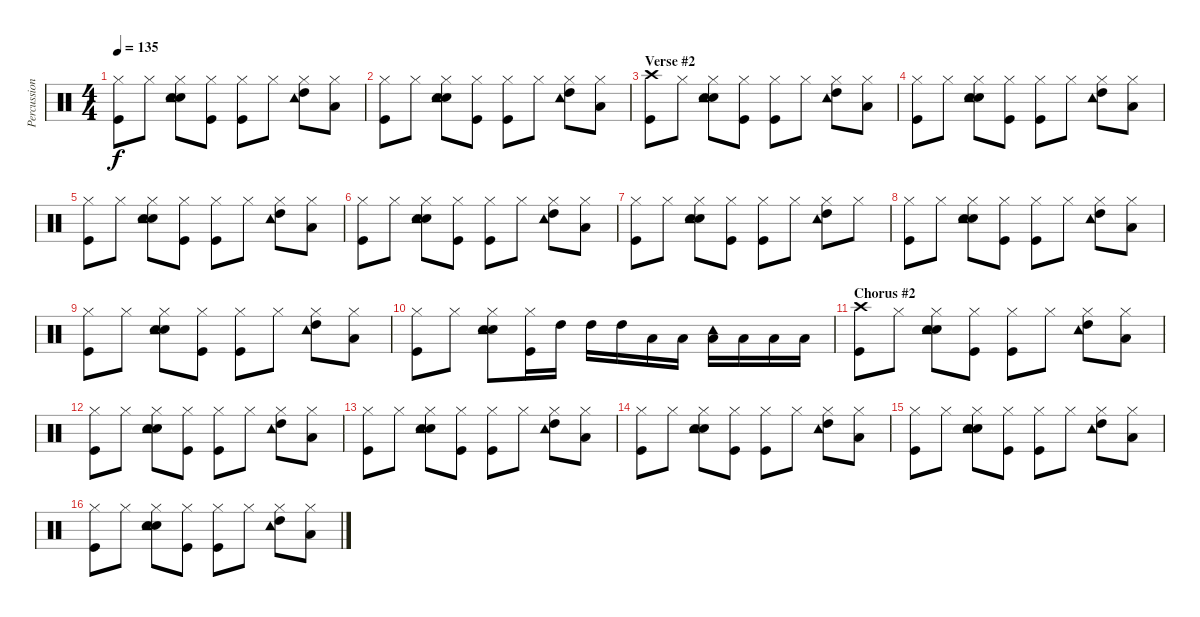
\track ("Percussion" "Percussion") {instrument percussion}
\staff {score}
\articulation defaults
\ts (4 4)
\tempo 135
\clef neutral
\ks c
("Hi-Hat (closed)" "Kick (hit)").8{dy f} "Hi-Hat (closed)".8 ("Hi-Hat (closed)" "Electric Snare (hit)" "Tambourine (hit)" "Hand Clap (hit)").8 ("Hi-Hat (closed)" "Kick (hit)").8 ("Hi-Hat (closed)" "Kick (hit)").8 "Hi-Hat (closed)".8 ("Hi-Hat (closed)" "High Tom (hit)" "Tambourine (hit)").8 ("Hi-Hat (closed)" "Low Tom (hit)").8 |
("Hi-Hat (closed)" "Kick (hit)").8 "Hi-Hat (closed)".8 ("Hi-Hat (closed)" "Electric Snare (hit)" "Tambourine (hit)" "Hand Clap (hit)").8 ("Hi-Hat (closed)" "Kick (hit)").8 ("Hi-Hat (closed)" "Kick (hit)").8 "Hi-Hat (closed)".8 ("Hi-Hat (closed)" "High Tom (hit)" "Tambourine (hit)").8 ("Hi-Hat (closed)" "Low Tom (hit)").8 |
\section ("" "Verse #2")
("Crash high (hit)" "Kick (hit)").8 "Hi-Hat (closed)".8 ("Hi-Hat (closed)" "Electric Snare (hit)" "Tambourine (hit)" "Hand Clap (hit)").8 ("Hi-Hat (closed)" "Kick (hit)").8 ("Hi-Hat (closed)" "Kick (hit)").8 "Hi-Hat (closed)".8 ("Hi-Hat (closed)" "High Tom (hit)" "Tambourine (hit)").8 ("Hi-Hat (closed)" "Low Tom (hit)").8 |
("Hi-Hat (closed)" "Kick (hit)").8 "Hi-Hat (closed)".8 ("Hi-Hat (closed)" "Electric Snare (hit)" "Tambourine (hit)" "Hand Clap (hit)").8 ("Hi-Hat (closed)" "Kick (hit)").8 ("Hi-Hat (closed)" "Kick (hit)").8 "Hi-Hat (closed)".8 ("Hi-Hat (closed)" "High Tom (hit)" "Tambourine (hit)").8 ("Hi-Hat (closed)" "Low Tom (hit)").8 |
("Hi-Hat (closed)" "Kick (hit)").8 "Hi-Hat (closed)".8 ("Hi-Hat (closed)" "Electric Snare (hit)" "Tambourine (hit)" "Hand Clap (hit)").8 ("Hi-Hat (closed)" "Kick (hit)").8 ("Hi-Hat (closed)" "Kick (hit)").8 "Hi-Hat (closed)".8 ("Hi-Hat (closed)" "High Tom (hit)" "Tambourine (hit)").8 ("Hi-Hat (closed)" "Low Tom (hit)").8 |
("Hi-Hat (closed)" "Kick (hit)").8 "Hi-Hat (closed)".8 ("Hi-Hat (closed)" "Electric Snare (hit)" "Tambourine (hit)" "Hand Clap (hit)").8 ("Hi-Hat (closed)" "Kick (hit)").8 ("Hi-Hat (closed)" "Kick (hit)").8 "Hi-Hat (closed)".8 ("Hi-Hat (closed)" "High Tom (hit)" "Tambourine (hit)").8 ("Hi-Hat (closed)" "Low Tom (hit)").8 |
("Hi-Hat (closed)" "Kick (hit)").8 "Hi-Hat (closed)".8 ("Hi-Hat (closed)" "Electric Snare (hit)" "Tambourine (hit)" "Hand Clap (hit)").8 ("Hi-Hat (closed)" "Kick (hit)").8 ("Hi-Hat (closed)" "Kick (hit)").8 "Hi-Hat (closed)".8 ("Hi-Hat (closed)" "High Tom (hit)" "Tambourine (hit)").8 "Hi-Hat (closed)".8 |
("Hi-Hat (closed)" "Kick (hit)").8 "Hi-Hat (closed)".8 ("Hi-Hat (closed)" "Electric Snare (hit)" "Tambourine (hit)" "Hand Clap (hit)").8 ("Hi-Hat (closed)" "Kick (hit)").8 ("Hi-Hat (closed)" "Kick (hit)").8 "Hi-Hat (closed)".8 ("Hi-Hat (closed)" "High Tom (hit)" "Tambourine (hit)").8 ("Hi-Hat (closed)" "Low Tom (hit)").8 |
("Hi-Hat (closed)" "Kick (hit)").8 "Hi-Hat (closed)".8 ("Hi-Hat (closed)" "Electric Snare (hit)" "Tambourine (hit)" "Hand Clap (hit)").8 ("Hi-Hat (closed)" "Kick (hit)").8 ("Hi-Hat (closed)" "Kick (hit)").8 "Hi-Hat (closed)".8 ("Hi-Hat (closed)" "High Tom (hit)" "Tambourine (hit)").8 ("Hi-Hat (closed)" "Low Tom (hit)").8 |
("Hi-Hat (closed)" "Kick (hit)").8 "Hi-Hat (closed)".8 ("Hi-Hat (closed)" "Electric Snare (hit)" "Tambourine (hit)" "Hand Clap (hit)").8 ("Hi-Hat (closed)" "Kick (hit)").16 "High Tom (hit)".16 "High Tom (hit)".16 "High Tom (hit)".16 "Low Tom (hit)".16 "Low Tom (hit)".16 ("Low Tom (hit)" "Tambourine (hit)").16 "Low Tom (hit)".16 "Low Floor Tom (hit)".16 "Low Floor Tom (hit)".16 |
\section ("" "Chorus #2")
("Crash high (hit)" "Kick (hit)").8 "Hi-Hat (closed)".8 ("Hi-Hat (closed)" "Electric Snare (hit)" "Tambourine (hit)" "Hand Clap (hit)").8 ("Hi-Hat (closed)" "Kick (hit)").8 ("Hi-Hat (closed)" "Kick (hit)").8 "Hi-Hat (closed)".8 ("Hi-Hat (closed)" "High Tom (hit)" "Tambourine (hit)").8 ("Hi-Hat (closed)" "Low Tom (hit)").8 |
("Hi-Hat (closed)" "Kick (hit)").8 "Hi-Hat (closed)".8 ("Hi-Hat (closed)" "Electric Snare (hit)" "Tambourine (hit)" "Hand Clap (hit)").8 ("Hi-Hat (closed)" "Kick (hit)").8 ("Hi-Hat (closed)" "Kick (hit)").8 "Hi-Hat (closed)".8 ("Hi-Hat (closed)" "High Tom (hit)" "Tambourine (hit)").8 ("Hi-Hat (closed)" "Low Tom (hit)").8 |
("Hi-Hat (closed)" "Kick (hit)").8 "Hi-Hat (closed)".8 ("Hi-Hat (closed)" "Electric Snare (hit)" "Tambourine (hit)" "Hand Clap (hit)").8 ("Hi-Hat (closed)" "Kick (hit)").8 ("Hi-Hat (closed)" "Kick (hit)").8 "Hi-Hat (closed)".8 ("Hi-Hat (closed)" "High Tom (hit)" "Tambourine (hit)").8 ("Hi-Hat (closed)" "Low Tom (hit)").8 |
("Hi-Hat (closed)" "Kick (hit)").8 "Hi-Hat (closed)".8 ("Hi-Hat (closed)" "Electric Snare (hit)" "Tambourine (hit)" "Hand Clap (hit)").8 ("Hi-Hat (closed)" "Kick (hit)").8 ("Hi-Hat (closed)" "Kick (hit)").8 "Hi-Hat (closed)".8 ("Hi-Hat (closed)" "High Tom (hit)" "Tambourine (hit)").8 ("Hi-Hat (closed)" "Low Tom (hit)").8 |
("Hi-Hat (closed)" "Kick (hit)").8 "Hi-Hat (closed)".8 ("Hi-Hat (closed)" "Electric Snare (hit)" "Tambourine (hit)" "Hand Clap (hit)").8 ("Hi-Hat (closed)" "Kick (hit)").8 ("Hi-Hat (closed)" "Kick (hit)").8 "Hi-Hat (closed)".8 ("Hi-Hat (closed)" "High Tom (hit)" "Tambourine (hit)").8 ("Hi-Hat (closed)" "Low Tom (hit)").8 |
("Hi-Hat (closed)" "Kick (hit)").8 "Hi-Hat (closed)".8 ("Hi-Hat (closed)" "Electric Snare (hit)" "Tambourine (hit)" "Hand Clap (hit)").8 ("Hi-Hat (closed)" "Kick (hit)").8 ("Hi-Hat (closed)" "Kick (hit)").8 "Hi-Hat (closed)".8 ("Hi-Hat (closed)" "High Tom (hit)" "Tambourine (hit)").8 ("Hi-Hat (closed)" "Low Tom (hit)").8
